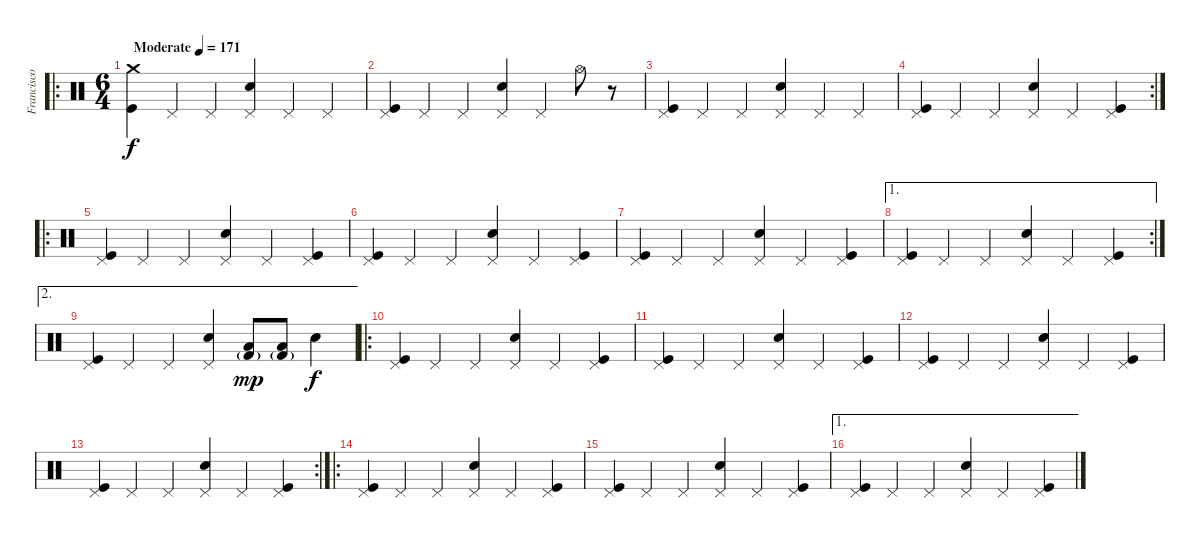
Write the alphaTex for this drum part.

\track ("Francisco González" "Francisco ") {instrument percussion}
\staff {score}
\articulation defaults
\ro
\ts (6 4)
\tempo (171 "Moderate")
\clef neutral
\ks c
("Crash medium (hit)" "Kick (hit)").4{dy f} "Pedal Hi-Hat (hit)".4 "Pedal Hi-Hat (hit)".4 ("Pedal Hi-Hat (hit)" "Electric Snare (hit)").4 "Pedal Hi-Hat (hit)".4 "Pedal Hi-Hat (hit)".4 |
("Pedal Hi-Hat (hit)" "Kick (hit)").4 "Pedal Hi-Hat (hit)".4 "Pedal Hi-Hat (hit)".4 ("Pedal Hi-Hat (hit)" "Electric Snare (hit)").4 "Pedal Hi-Hat (hit)".4 "Hi-Hat (open)".8 r.8 |
("Pedal Hi-Hat (hit)" "Kick (hit)").4 "Pedal Hi-Hat (hit)".4 "Pedal Hi-Hat (hit)".4 ("Pedal Hi-Hat (hit)" "Electric Snare (hit)").4 "Pedal Hi-Hat (hit)".4 "Pedal Hi-Hat (hit)".4 |
\rc 2
("Pedal Hi-Hat (hit)" "Kick (hit)").4 "Pedal Hi-Hat (hit)".4 "Pedal Hi-Hat (hit)".4 ("Pedal Hi-Hat (hit)" "Electric Snare (hit)").4 "Pedal Hi-Hat (hit)".4 ("Pedal Hi-Hat (hit)" "Kick (hit)").4 |
\ro
("Pedal Hi-Hat (hit)" "Kick (hit)").4 "Pedal Hi-Hat (hit)".4 "Pedal Hi-Hat (hit)".4 ("Pedal Hi-Hat (hit)" "Electric Snare (hit)").4 "Pedal Hi-Hat (hit)".4 ("Pedal Hi-Hat (hit)" "Kick (hit)").4 |
("Pedal Hi-Hat (hit)" "Kick (hit)").4 "Pedal Hi-Hat (hit)".4 "Pedal Hi-Hat (hit)".4 ("Pedal Hi-Hat (hit)" "Electric Snare (hit)").4 "Pedal Hi-Hat (hit)".4 ("Pedal Hi-Hat (hit)" "Kick (hit)").4 |
("Pedal Hi-Hat (hit)" "Kick (hit)").4 "Pedal Hi-Hat (hit)".4 "Pedal Hi-Hat (hit)".4 ("Pedal Hi-Hat (hit)" "Electric Snare (hit)").4 "Pedal Hi-Hat (hit)".4 ("Pedal Hi-Hat (hit)" "Kick (hit)").4 |
\ae 1
\rc 2
("Pedal Hi-Hat (hit)" "Kick (hit)").4 "Pedal Hi-Hat (hit)".4 "Pedal Hi-Hat (hit)".4 ("Pedal Hi-Hat (hit)" "Electric Snare (hit)").4 "Pedal Hi-Hat (hit)".4 ("Pedal Hi-Hat (hit)" "Kick (hit)").4 |
\ae 2
("Pedal Hi-Hat (hit)" "Kick (hit)").4 "Pedal Hi-Hat (hit)".4 "Pedal Hi-Hat (hit)".4 ("Pedal Hi-Hat (hit)" "Electric Snare (hit)").4 ("Low Floor Tom (hit)" "Kick (hit) 2"{g}).8{dy mp} ("Low Floor Tom (hit)" "Kick (hit) 2"{g}).8 "Electric Snare (hit)".4{dy f} |
\ro
("Pedal Hi-Hat (hit)" "Kick (hit)").4 "Pedal Hi-Hat (hit)".4 "Pedal Hi-Hat (hit)".4 ("Pedal Hi-Hat (hit)" "Electric Snare (hit)").4 "Pedal Hi-Hat (hit)".4 ("Pedal Hi-Hat (hit)" "Kick (hit)").4 |
("Pedal Hi-Hat (hit)" "Kick (hit)").4 "Pedal Hi-Hat (hit)".4 "Pedal Hi-Hat (hit)".4 ("Pedal Hi-Hat (hit)" "Electric Snare (hit)").4 "Pedal Hi-Hat (hit)".4 ("Pedal Hi-Hat (hit)" "Kick (hit)").4 |
("Pedal Hi-Hat (hit)" "Kick (hit)").4 "Pedal Hi-Hat (hit)".4 "Pedal Hi-Hat (hit)".4 ("Pedal Hi-Hat (hit)" "Electric Snare (hit)").4 "Pedal Hi-Hat (hit)".4 ("Pedal Hi-Hat (hit)" "Kick (hit)").4 |
\rc 2
("Pedal Hi-Hat (hit)" "Kick (hit)").4 "Pedal Hi-Hat (hit)".4 "Pedal Hi-Hat (hit)".4 ("Pedal Hi-Hat (hit)" "Electric Snare (hit)").4 "Pedal Hi-Hat (hit)".4 ("Pedal Hi-Hat (hit)" "Kick (hit)").4 |
\ro
("Pedal Hi-Hat (hit)" "Kick (hit)").4 "Pedal Hi-Hat (hit)".4 "Pedal Hi-Hat (hit)".4 ("Pedal Hi-Hat (hit)" "Electric Snare (hit)").4 "Pedal Hi-Hat (hit)".4 ("Pedal Hi-Hat (hit)" "Kick (hit)").4 |
("Pedal Hi-Hat (hit)" "Kick (hit)").4 "Pedal Hi-Hat (hit)".4 "Pedal Hi-Hat (hit)".4 ("Pedal Hi-Hat (hit)" "Electric Snare (hit)").4 "Pedal Hi-Hat (hit)".4 ("Pedal Hi-Hat (hit)" "Kick (hit)").4 |
\ae 1
("Pedal Hi-Hat (hit)" "Kick (hit)").4 "Pedal Hi-Hat (hit)".4 "Pedal Hi-Hat (hit)".4 ("Pedal Hi-Hat (hit)" "Electric Snare (hit)").4 "Pedal Hi-Hat (hit)".4 ("Pedal Hi-Hat (hit)" "Kick (hit)").4
